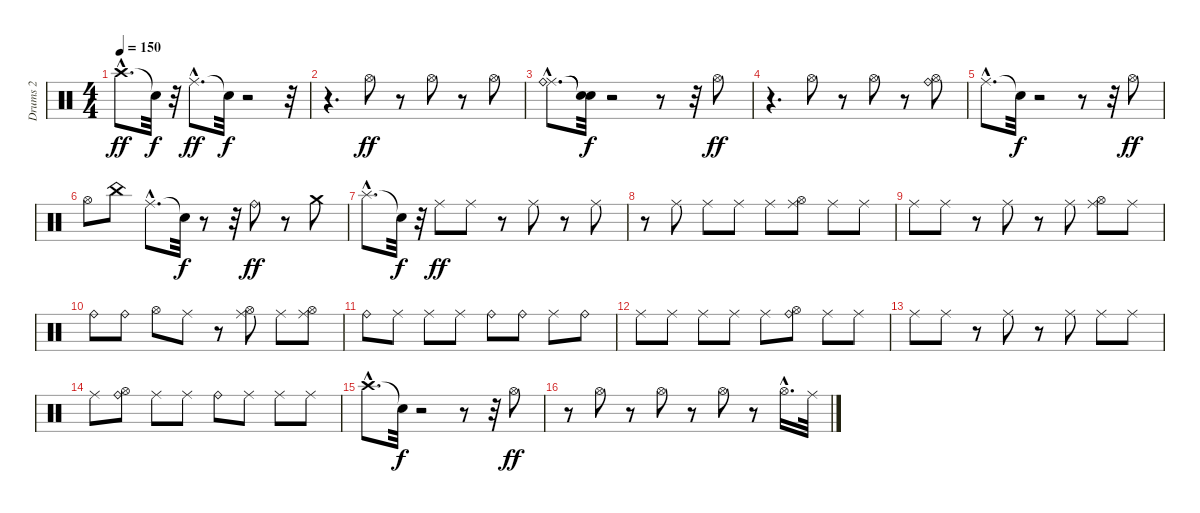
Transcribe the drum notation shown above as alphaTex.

\track ("Drums 2" "Drums 2") {instrument percussion}
\staff {score}
\articulation defaults
\ts (4 4)
\tempo 150
\clef neutral
\ks c "Crash high (hit)"{hac}.8{d dy ff} "Snare (hit)"{t}.32{dy f}
r.32 "Ride (middle)"{hac}.8{d dy ff} "Snare (hit)"{t}.32{dy f} r.2 r.32 |
r.4{d} "Hi-Hat (open)".8{dy ff} r.8 "Hi-Hat (open)".8 r.8 "Hi-Hat (open)".8 |
("Ride (middle)"{hac} "Ride (bell)"{hac}).8{d} ("Snare (hit)"{t} "Snare (hit)"{t}).32{dy f} r.2 r.8 r.32 "Hi-Hat (open)".8{dy ff} |
r.4{d} "Hi-Hat (open)".8 r.8 "Hi-Hat (open)".8 r.8 ("Hi-Hat (open)" "Ride (bell)").8 |
"Ride (middle)"{hac}.8{d} "Snare (hit)"{t}.32{dy f} r.2 r.8 r.32 "Hi-Hat (open)".8{dy ff} |
"Hi-Hat (open)".8 "China (hit)".8 "Ride (middle)"{hac}.8{d} "Snare (hit)"{t}.32{dy f} r.8 r.32 "Ride (bell)".8{dy ff} r.8 "Crash medium (hit)".8 |
"Splash (hit)"{hac}.8{d} "Snare (hit)"{t}.32{dy f} r.32 "Ride (middle)".8{dy ff} "Ride (middle)".8 r.8 "Ride (middle)".8 r.8 "Ride (middle)".8 |
r.8 "Ride (middle)".8 "Ride (middle)".8 "Ride (middle)".8 "Ride (middle)".8 ("Hi-Hat (open)" "Ride (middle)").8 "Ride (middle)".8 "Ride (middle)".8 |
"Ride (middle)".8 "Ride (middle)".8 r.8 "Ride (middle)".8 r.8 "Ride (middle)".8 ("Hi-Hat (open)" "Ride (middle)").8 "Ride (middle)".8 |
"Ride (bell)".8 "Ride (bell)".8 "Hi-Hat (open)".8 "Ride (middle)".8 r.8 ("Hi-Hat (open)" "Ride (middle)").8 "Ride (middle)".8 ("Hi-Hat (open)" "Ride (middle)").8 |
"Ride (bell)".8 "Ride (middle)".8 "Ride (middle)".8 "Ride (middle)".8 "Ride (bell)".8 "Ride (bell)".8 "Ride (middle)".8 "Ride (bell)".8 |
"Ride (middle)".8 "Ride (middle)".8 "Ride (middle)".8 "Ride (middle)".8 "Ride (middle)".8 ("Hi-Hat (open)" "Ride (bell)").8 "Ride (middle)".8 "Ride (middle)".8 |
"Ride (middle)".8 "Ride (middle)".8 r.8 "Ride (middle)".8 r.8 "Ride (middle)".8 "Ride (middle)".8 "Ride (middle)".8 |
"Ride (middle)".8 ("Hi-Hat (open)" "Ride (bell)").8 "Ride (middle)".8 "Ride (middle)".8 "Ride (bell)".8 "Ride (middle)".8 "Ride (middle)".8 "Ride (middle)".8 |
"Crash high (hit)"{hac}.8{d} "Snare (hit)"{t}.32{dy f} r.2 r.8 r.32 "Hi-Hat (open)".8{dy ff} |
r.8 "Hi-Hat (open)".8 r.8 "Hi-Hat (open)".8 r.8 "Hi-Hat (open)".8 r.8 "Hi-Hat (open)"{hac}.16{d} "Ride (middle)".32
